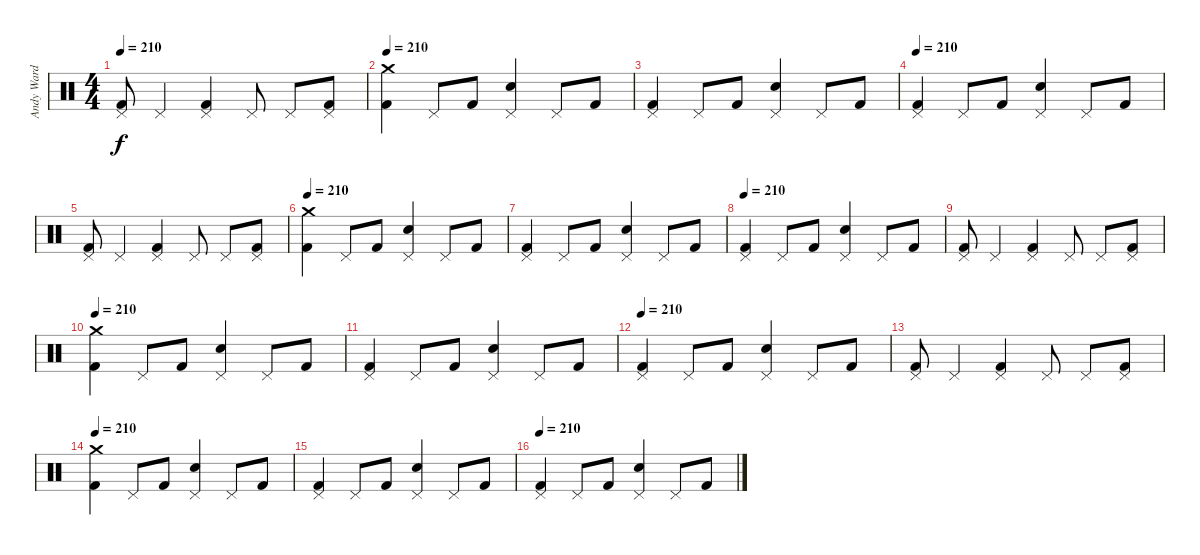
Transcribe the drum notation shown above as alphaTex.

\track ("Andy Ward" "Andy Ward") {instrument percussion}
\staff {score}
\articulation defaults
\ts (4 4)
\tempo 210
\clef neutral
\ks c
("Pedal Hi-Hat (hit)" "Kick (hit) 2").8{dy f} "Pedal Hi-Hat (hit)".4 ("Pedal Hi-Hat (hit)" "Kick (hit) 2").4 "Pedal Hi-Hat (hit)".8 "Pedal Hi-Hat (hit)".8 ("Pedal Hi-Hat (hit)" "Kick (hit) 2").8 |
\tempo 210
("Crash medium (hit)" "Kick (hit) 2").4 "Pedal Hi-Hat (hit)".8 "Kick (hit) 2".8 ("Pedal Hi-Hat (hit)" "Electric Snare (hit)").4 "Pedal Hi-Hat (hit)".8 "Kick (hit) 2".8 |
("Pedal Hi-Hat (hit)" "Kick (hit) 2").4 "Pedal Hi-Hat (hit)".8 "Kick (hit) 2".8 ("Pedal Hi-Hat (hit)" "Electric Snare (hit)").4 "Pedal Hi-Hat (hit)".8 "Kick (hit) 2".8 |
\tempo 210
("Pedal Hi-Hat (hit)" "Kick (hit) 2").4 "Pedal Hi-Hat (hit)".8 "Kick (hit) 2".8 ("Pedal Hi-Hat (hit)" "Electric Snare (hit)").4 "Pedal Hi-Hat (hit)".8 "Kick (hit) 2".8 |
("Pedal Hi-Hat (hit)" "Kick (hit) 2").8 "Pedal Hi-Hat (hit)".4 ("Pedal Hi-Hat (hit)" "Kick (hit) 2").4 "Pedal Hi-Hat (hit)".8 "Pedal Hi-Hat (hit)".8 ("Pedal Hi-Hat (hit)" "Kick (hit) 2").8 |
\tempo 210
("Crash medium (hit)" "Kick (hit) 2").4 "Pedal Hi-Hat (hit)".8 "Kick (hit) 2".8 ("Pedal Hi-Hat (hit)" "Electric Snare (hit)").4 "Pedal Hi-Hat (hit)".8 "Kick (hit) 2".8 |
("Pedal Hi-Hat (hit)" "Kick (hit) 2").4 "Pedal Hi-Hat (hit)".8 "Kick (hit) 2".8 ("Pedal Hi-Hat (hit)" "Electric Snare (hit)").4 "Pedal Hi-Hat (hit)".8 "Kick (hit) 2".8 |
\tempo 210
("Pedal Hi-Hat (hit)" "Kick (hit) 2").4 "Pedal Hi-Hat (hit)".8 "Kick (hit) 2".8 ("Pedal Hi-Hat (hit)" "Electric Snare (hit)").4 "Pedal Hi-Hat (hit)".8 "Kick (hit) 2".8 |
("Pedal Hi-Hat (hit)" "Kick (hit) 2").8 "Pedal Hi-Hat (hit)".4 ("Pedal Hi-Hat (hit)" "Kick (hit) 2").4 "Pedal Hi-Hat (hit)".8 "Pedal Hi-Hat (hit)".8 ("Pedal Hi-Hat (hit)" "Kick (hit) 2").8 |
\tempo 210
("Crash medium (hit)" "Kick (hit) 2").4 "Pedal Hi-Hat (hit)".8 "Kick (hit) 2".8 ("Pedal Hi-Hat (hit)" "Electric Snare (hit)").4 "Pedal Hi-Hat (hit)".8 "Kick (hit) 2".8 |
("Pedal Hi-Hat (hit)" "Kick (hit) 2").4 "Pedal Hi-Hat (hit)".8 "Kick (hit) 2".8 ("Pedal Hi-Hat (hit)" "Electric Snare (hit)").4 "Pedal Hi-Hat (hit)".8 "Kick (hit) 2".8 |
\tempo 210
("Pedal Hi-Hat (hit)" "Kick (hit) 2").4 "Pedal Hi-Hat (hit)".8 "Kick (hit) 2".8 ("Pedal Hi-Hat (hit)" "Electric Snare (hit)").4 "Pedal Hi-Hat (hit)".8 "Kick (hit) 2".8 |
("Pedal Hi-Hat (hit)" "Kick (hit) 2").8 "Pedal Hi-Hat (hit)".4 ("Pedal Hi-Hat (hit)" "Kick (hit) 2").4 "Pedal Hi-Hat (hit)".8 "Pedal Hi-Hat (hit)".8 ("Pedal Hi-Hat (hit)" "Kick (hit) 2").8 |
\tempo 210
("Crash medium (hit)" "Kick (hit) 2").4 "Pedal Hi-Hat (hit)".8 "Kick (hit) 2".8 ("Pedal Hi-Hat (hit)" "Electric Snare (hit)").4 "Pedal Hi-Hat (hit)".8 "Kick (hit) 2".8 |
("Pedal Hi-Hat (hit)" "Kick (hit) 2").4 "Pedal Hi-Hat (hit)".8 "Kick (hit) 2".8 ("Pedal Hi-Hat (hit)" "Electric Snare (hit)").4 "Pedal Hi-Hat (hit)".8 "Kick (hit) 2".8 |
\tempo 210
("Pedal Hi-Hat (hit)" "Kick (hit) 2").4 "Pedal Hi-Hat (hit)".8 "Kick (hit) 2".8 ("Pedal Hi-Hat (hit)" "Electric Snare (hit)").4 "Pedal Hi-Hat (hit)".8 "Kick (hit) 2".8
